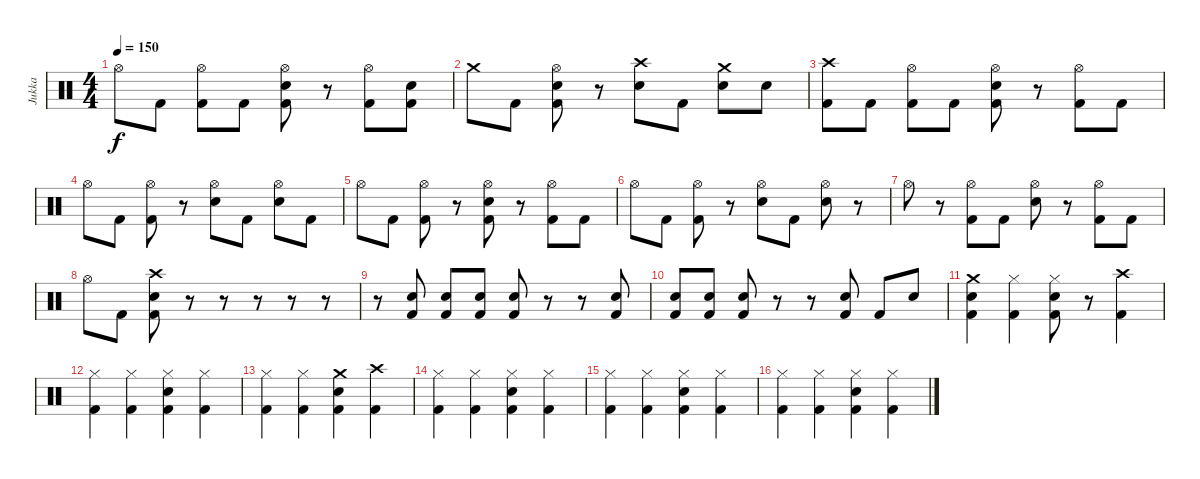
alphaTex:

\track ("Jukka" "Jukka") {instrument percussion}
\staff {score}
\articulation defaults
\ts (4 4)
\tempo 150
\clef neutral
\ks c "Hi-Hat (open)".8{dy f} "Kick (hit) 2".8
("Hi-Hat (open)" "Kick (hit) 2").8 "Kick (hit) 2".8 ("Hi-Hat (open)" "Electric Snare (hit)" "Kick (hit) 2").8 r.8 ("Hi-Hat (open)" "Kick (hit) 2").8 ("Electric Snare (hit)" "Kick (hit) 2").8 |
"Crash medium (hit)".8 "Kick (hit) 2".8 ("Hi-Hat (open)" "Electric Snare (hit)" "Kick (hit) 2").8 r.8 ("Crash high (hit)" "Electric Snare (hit)").8 "Kick (hit) 2".8 ("Crash medium (hit)" "Electric Snare (hit)").8 "Electric Snare (hit)".8 |
("Crash high (hit)" "Kick (hit) 2").8 "Kick (hit) 2".8 ("Hi-Hat (open)" "Kick (hit) 2").8 "Kick (hit) 2".8 ("Hi-Hat (open)" "Electric Snare (hit)" "Kick (hit) 2").8 r.8 ("Hi-Hat (open)" "Kick (hit) 2").8 "Kick (hit) 2".8 |
"Hi-Hat (open)".8 "Kick (hit) 2".8 ("Hi-Hat (open)" "Kick (hit) 2").8 r.8 ("Hi-Hat (open)" "Electric Snare (hit)").8 "Kick (hit) 2".8 ("Hi-Hat (open)" "Electric Snare (hit)").8 "Kick (hit) 2".8 |
"Hi-Hat (open)".8 "Kick (hit) 2".8 ("Hi-Hat (open)" "Kick (hit) 2").8 r.8 ("Hi-Hat (open)" "Electric Snare (hit)" "Kick (hit) 2").8 r.8 ("Hi-Hat (open)" "Kick (hit) 2").8 "Kick (hit) 2".8 |
"Hi-Hat (open)".8 "Kick (hit) 2".8 ("Hi-Hat (open)" "Kick (hit) 2").8 r.8 ("Hi-Hat (open)" "Electric Snare (hit)").8 "Kick (hit) 2".8 ("Hi-Hat (open)" "Electric Snare (hit)").8 r.8 |
"Hi-Hat (open)".8 r.8 ("Hi-Hat (open)" "Kick (hit) 2").8 "Kick (hit) 2".8 ("Hi-Hat (open)" "Electric Snare (hit)").8 r.8 ("Hi-Hat (open)" "Kick (hit) 2").8 "Kick (hit) 2".8 |
"Hi-Hat (open)".8 "Kick (hit) 2".8 ("Crash high (hit)" "Electric Snare (hit)" "Kick (hit) 2").8 r.8 r.8 r.8 r.8 r.8 |
r.8 ("Electric Snare (hit)" "Kick (hit) 2").8 ("Electric Snare (hit)" "Kick (hit) 2").8 ("Electric Snare (hit)" "Kick (hit) 2").8 ("Electric Snare (hit)" "Kick (hit) 2").8 r.8 r.8 ("Electric Snare (hit)" "Kick (hit) 2").8 |
("Electric Snare (hit)" "Kick (hit) 2").8 ("Electric Snare (hit)" "Kick (hit) 2").8 ("Electric Snare (hit)" "Kick (hit) 2").8 r.8 r.8 ("Electric Snare (hit)" "Kick (hit) 2").8 "Kick (hit) 2".8 "Electric Snare (hit)".8 |
("Crash medium (hit)" "Electric Snare (hit)" "Kick (hit) 2").4 ("Hi-Hat (closed)" "Kick (hit) 2").4 ("Hi-Hat (closed)" "Electric Snare (hit)" "Kick (hit) 2").8 r.8 ("Crash high (hit)" "Kick (hit) 2").4 |
("Hi-Hat (closed)" "Kick (hit) 2").4 ("Hi-Hat (closed)" "Kick (hit) 2").4 ("Hi-Hat (closed)" "Electric Snare (hit)" "Kick (hit) 2").4 ("Hi-Hat (closed)" "Kick (hit) 2").4 |
("Hi-Hat (closed)" "Kick (hit) 2").4 ("Hi-Hat (closed)" "Kick (hit) 2").4 ("Crash medium (hit)" "Electric Snare (hit)" "Kick (hit) 2").4 ("Crash high (hit)" "Kick (hit) 2").4 |
("Hi-Hat (closed)" "Kick (hit) 2").4 ("Hi-Hat (closed)" "Kick (hit) 2").4 ("Hi-Hat (closed)" "Electric Snare (hit)" "Kick (hit) 2").4 ("Hi-Hat (closed)" "Kick (hit) 2").4 |
("Hi-Hat (closed)" "Kick (hit) 2").4 ("Hi-Hat (closed)" "Kick (hit) 2").4 ("Hi-Hat (closed)" "Electric Snare (hit)" "Kick (hit) 2").4 ("Hi-Hat (closed)" "Kick (hit) 2").4 |
("Hi-Hat (closed)" "Kick (hit) 2").4 ("Hi-Hat (closed)" "Kick (hit) 2").4 ("Hi-Hat (closed)" "Electric Snare (hit)" "Kick (hit) 2").4 ("Hi-Hat (closed)" "Kick (hit) 2").4
